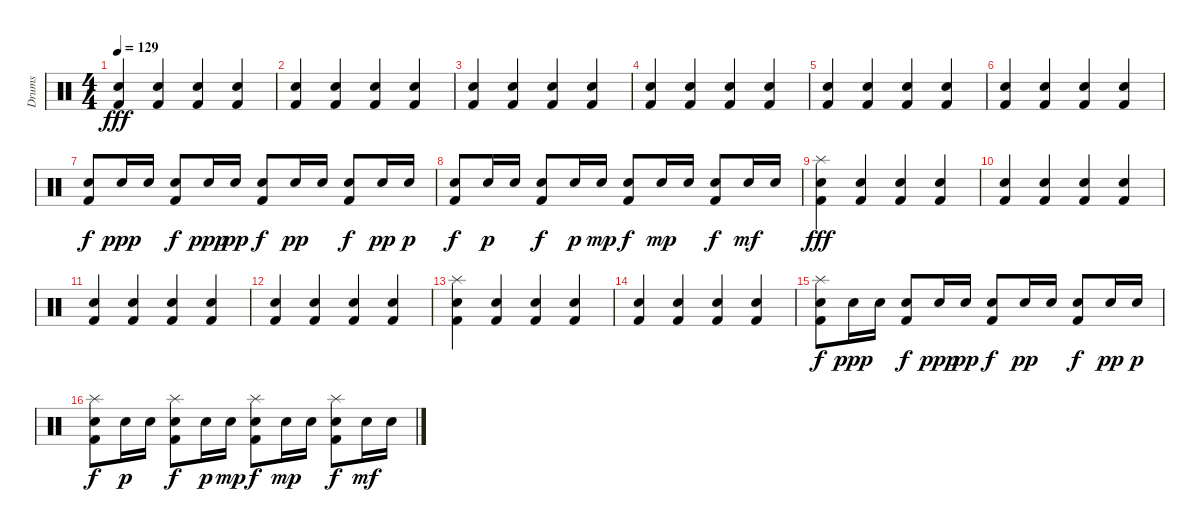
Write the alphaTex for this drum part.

\track ("Drums" "Drums") {instrument percussion}
\staff {score}
\articulation defaults
\ts (4 4)
\tempo 129
\clef neutral
\ks c
("Hand Clap (hit)" "Kick (hit) 2").4{dy fff} ("Hand Clap (hit)" "Kick (hit) 2").4 ("Hand Clap (hit)" "Kick (hit) 2").4 ("Hand Clap (hit)" "Kick (hit) 2").4 |
("Hand Clap (hit)" "Kick (hit) 2").4 ("Hand Clap (hit)" "Kick (hit) 2").4 ("Hand Clap (hit)" "Kick (hit) 2").4 ("Hand Clap (hit)" "Kick (hit) 2").4 |
("Hand Clap (hit)" "Kick (hit) 2").4 ("Hand Clap (hit)" "Kick (hit) 2").4 ("Hand Clap (hit)" "Kick (hit) 2").4 ("Hand Clap (hit)" "Kick (hit) 2").4 |
("Hand Clap (hit)" "Kick (hit) 2").4 ("Hand Clap (hit)" "Kick (hit) 2").4 ("Hand Clap (hit)" "Kick (hit) 2").4 ("Hand Clap (hit)" "Kick (hit) 2").4 |
("Hand Clap (hit)" "Kick (hit) 2").4 ("Hand Clap (hit)" "Kick (hit) 2").4 ("Hand Clap (hit)" "Kick (hit) 2").4 ("Hand Clap (hit)" "Kick (hit) 2").4 |
("Hand Clap (hit)" "Kick (hit) 2").4 ("Hand Clap (hit)" "Kick (hit) 2").4 ("Hand Clap (hit)" "Kick (hit) 2").4 ("Hand Clap (hit)" "Kick (hit) 2").4 |
("Hand Clap (hit)" "Kick (hit) 2").8{dy f} "Hand Clap (hit)".16{dy ppp} "Hand Clap (hit)".16 ("Hand Clap (hit)" "Kick (hit) 2").8{dy f} "Hand Clap (hit)".16{dy ppp} "Hand Clap (hit)".16{dy pp} ("Hand Clap (hit)" "Kick (hit) 2").8{dy f} "Hand Clap (hit)".16{dy pp} "Hand Clap (hit)".16 ("Hand Clap (hit)" "Kick (hit) 2").8{dy f} "Hand Clap (hit)".16{dy pp} "Hand Clap (hit)".16{dy p} |
("Hand Clap (hit)" "Kick (hit) 2").8{dy f} "Hand Clap (hit)".16{dy p} "Hand Clap (hit)".16 ("Hand Clap (hit)" "Kick (hit) 2").8{dy f} "Hand Clap (hit)".16{dy p} "Hand Clap (hit)".16{dy mp} ("Hand Clap (hit)" "Kick (hit) 2").8{dy f} "Hand Clap (hit)".16{dy mp} "Hand Clap (hit)".16 ("Hand Clap (hit)" "Kick (hit) 2").8{dy f} "Hand Clap (hit)".16{dy mf} "Hand Clap (hit)".16 |
("Splash (hit)" "Hand Clap (hit)" "Kick (hit) 2").4{dy fff} ("Hand Clap (hit)" "Kick (hit) 2").4 ("Hand Clap (hit)" "Kick (hit) 2").4 ("Hand Clap (hit)" "Kick (hit) 2").4 |
("Hand Clap (hit)" "Kick (hit) 2").4 ("Hand Clap (hit)" "Kick (hit) 2").4 ("Hand Clap (hit)" "Kick (hit) 2").4 ("Hand Clap (hit)" "Kick (hit) 2").4 |
("Hand Clap (hit)" "Kick (hit) 2").4 ("Hand Clap (hit)" "Kick (hit) 2").4 ("Hand Clap (hit)" "Kick (hit) 2").4 ("Hand Clap (hit)" "Kick (hit) 2").4 |
("Hand Clap (hit)" "Kick (hit) 2").4 ("Hand Clap (hit)" "Kick (hit) 2").4 ("Hand Clap (hit)" "Kick (hit) 2").4 ("Hand Clap (hit)" "Kick (hit) 2").4 |
("Splash (hit)" "Hand Clap (hit)" "Kick (hit) 2").4 ("Hand Clap (hit)" "Kick (hit) 2").4 ("Hand Clap (hit)" "Kick (hit) 2").4 ("Hand Clap (hit)" "Kick (hit) 2").4 |
("Hand Clap (hit)" "Kick (hit) 2").4 ("Hand Clap (hit)" "Kick (hit) 2").4 ("Hand Clap (hit)" "Kick (hit) 2").4 ("Hand Clap (hit)" "Kick (hit) 2").4 |
("Splash (hit)" "Hand Clap (hit)" "Kick (hit) 2").8{dy f} "Hand Clap (hit)".16{dy ppp} "Hand Clap (hit)".16 ("Hand Clap (hit)" "Kick (hit) 2").8{dy f} "Hand Clap (hit)".16{dy ppp} "Hand Clap (hit)".16{dy pp} ("Hand Clap (hit)" "Kick (hit) 2").8{dy f} "Hand Clap (hit)".16{dy pp} "Hand Clap (hit)".16 ("Hand Clap (hit)" "Kick (hit) 2").8{dy f} "Hand Clap (hit)".16{dy pp} "Hand Clap (hit)".16{dy p} |
("Splash (hit)" "Hand Clap (hit)" "Kick (hit) 2").8{dy f} "Hand Clap (hit)".16{dy p} "Hand Clap (hit)".16 ("Splash (hit)" "Hand Clap (hit)" "Kick (hit) 2").8{dy f} "Hand Clap (hit)".16{dy p} "Hand Clap (hit)".16{dy mp} ("Splash (hit)" "Hand Clap (hit)" "Kick (hit) 2").8{dy f} "Hand Clap (hit)".16{dy mp} "Hand Clap (hit)".16 ("Splash (hit)" "Hand Clap (hit)" "Kick (hit) 2").8{dy f} "Hand Clap (hit)".16{dy mf} "Hand Clap (hit)".16
